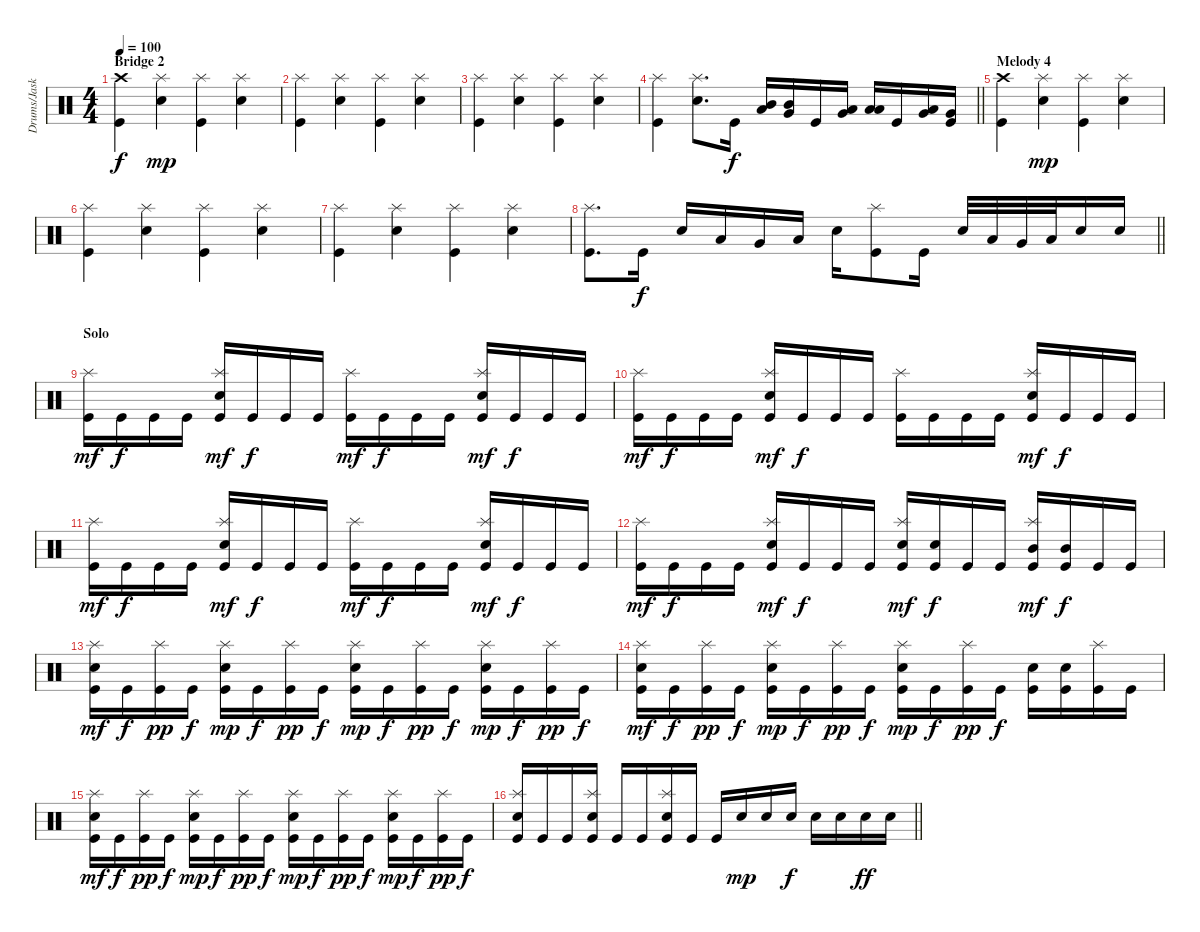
\track ("Drums/Jaska" "Drums/Jask") {instrument percussion}
\staff {score}
\articulation defaults
\ts (4 4)
\section ("" "Bridge 2")
\tempo 100
\clef neutral
\ks c
("Crash high (hit)" "Kick (hit)").4{dy f} ("Splash (hit)" "Electric Snare (hit)").4{dy mp} ("Splash (hit)" "Kick (hit)").4 ("Splash (hit)" "Electric Snare (hit)").4 |
("Splash (hit)" "Kick (hit)").4 ("Splash (hit)" "Electric Snare (hit)").4 ("Splash (hit)" "Kick (hit)").4 ("Splash (hit)" "Electric Snare (hit)").4 |
("Splash (hit)" "Kick (hit)").4 ("Splash (hit)" "Electric Snare (hit)").4 ("Splash (hit)" "Kick (hit)").4 ("Splash (hit)" "Electric Snare (hit)").4 |
\barLineRight lightlight
("Splash (hit)" "Kick (hit)").4 ("Splash (hit)" "Electric Snare (hit)").8{d} "Kick (hit)".16{dy f} ("Low Tom (hit)" "Mid Tom (hit)").16 ("Very Low Tom (hit)" "Mid Tom (hit)").16 "Kick (hit)".16 ("Very Low Tom (hit)" "Low Tom (hit)").16 ("Low Floor Tom (hit)" "Low Tom (hit)").16 "Kick (hit)".16 ("Low Floor Tom (hit)" "Very Low Tom (hit)").16 ("Very Low Tom (hit)" "Kick (hit)").16 |
\section ("" "Melody 4")
("Crash high (hit)" "Kick (hit)").4 ("Splash (hit)" "Electric Snare (hit)").4{dy mp} ("Splash (hit)" "Kick (hit)").4 ("Splash (hit)" "Electric Snare (hit)").4 |
("Splash (hit)" "Kick (hit)").4 ("Splash (hit)" "Electric Snare (hit)").4 ("Splash (hit)" "Kick (hit)").4 ("Splash (hit)" "Electric Snare (hit)").4 |
("Splash (hit)" "Kick (hit)").4 ("Splash (hit)" "Electric Snare (hit)").4 ("Splash (hit)" "Kick (hit)").4 ("Splash (hit)" "Electric Snare (hit)").4 |
\barLineRight lightlight
("Splash (hit)" "Kick (hit)").8{d} "Kick (hit)".16{dy f} "Electric Snare (hit)".16 "Low Tom (hit)".16 "Very Low Tom (hit)".16 "Low Floor Tom (hit)".16 "Electric Snare (hit)".16 ("Splash (hit)" "Kick (hit)").8 "Kick (hit)".16 "Electric Snare (hit)".32 "Low Tom (hit)".32 "Very Low Tom (hit)".32 "Low Floor Tom (hit)".32 "Electric Snare (hit)".16 "Electric Snare (hit)".16 |
\section ("" "Solo")
("Splash (hit)" "Kick (hit)").16{dy mf} "Kick (hit)".16{dy f} "Kick (hit)".16 "Kick (hit)".16 ("Splash (hit)" "Electric Snare (hit)" "Kick (hit)").16{dy mf} "Kick (hit)".16{dy f} "Kick (hit)".16 "Kick (hit)".16 ("Splash (hit)" "Kick (hit)").16{dy mf} "Kick (hit)".16{dy f} "Kick (hit)".16 "Kick (hit)".16 ("Splash (hit)" "Electric Snare (hit)" "Kick (hit)").16{dy mf} "Kick (hit)".16{dy f} "Kick (hit)".16 "Kick (hit)".16 |
("Splash (hit)" "Kick (hit)").16{dy mf} "Kick (hit)".16{dy f} "Kick (hit)".16 "Kick (hit)".16 ("Splash (hit)" "Electric Snare (hit)" "Kick (hit)").16{dy mf} "Kick (hit)".16{dy f} "Kick (hit)".16 "Kick (hit)".16 ("Splash (hit)" "Kick (hit)").16 "Kick (hit)".16 "Kick (hit)".16 "Kick (hit)".16 ("Splash (hit)" "Electric Snare (hit)" "Kick (hit)").16{dy mf} "Kick (hit)".16{dy f} "Kick (hit)".16 "Kick (hit)".16 |
("Splash (hit)" "Kick (hit)").16{dy mf} "Kick (hit)".16{dy f} "Kick (hit)".16 "Kick (hit)".16 ("Splash (hit)" "Electric Snare (hit)" "Kick (hit)").16{dy mf} "Kick (hit)".16{dy f} "Kick (hit)".16 "Kick (hit)".16 ("Splash (hit)" "Kick (hit)").16{dy mf} "Kick (hit)".16{dy f} "Kick (hit)".16 "Kick (hit)".16 ("Splash (hit)" "Electric Snare (hit)" "Kick (hit)").16{dy mf} "Kick (hit)".16{dy f} "Kick (hit)".16 "Kick (hit)".16 |
("Splash (hit)" "Kick (hit)").16{dy mf} "Kick (hit)".16{dy f} "Kick (hit)".16 "Kick (hit)".16 ("Splash (hit)" "Electric Snare (hit)" "Kick (hit)").16{dy mf} "Kick (hit)".16{dy f} "Kick (hit)".16 "Kick (hit)".16 ("Splash (hit)" "Electric Snare (hit)" "Kick (hit)").16{dy mf} ("Electric Snare (hit)" "Kick (hit)").16{dy f} "Kick (hit)".16 "Kick (hit)".16 ("Splash (hit)" "Mid Tom (hit)" "Kick (hit)").16{dy mf} ("Mid Tom (hit)" "Kick (hit)").16{dy f} "Kick (hit)".16 "Kick (hit)".16 |
("Splash (hit)" "Electric Snare (hit)" "Kick (hit)").16{dy mf} "Kick (hit)".16{dy f} ("Splash (hit)" "Kick (hit)").16{dy pp} "Kick (hit)".16{dy f} ("Splash (hit)" "Electric Snare (hit)" "Kick (hit)").16{dy mp} "Kick (hit)".16{dy f} ("Splash (hit)" "Kick (hit)").16{dy pp} "Kick (hit)".16{dy f} ("Splash (hit)" "Electric Snare (hit)" "Kick (hit)").16{dy mp} "Kick (hit)".16{dy f} ("Splash (hit)" "Kick (hit)").16{dy pp} "Kick (hit)".16{dy f} ("Splash (hit)" "Electric Snare (hit)" "Kick (hit)").16{dy mp} "Kick (hit)".16{dy f} ("Splash (hit)" "Kick (hit)").16{dy pp} "Kick (hit)".16{dy f} |
("Splash (hit)" "Electric Snare (hit)" "Kick (hit)").16{dy mf} "Kick (hit)".16{dy f} ("Splash (hit)" "Kick (hit)").16{dy pp} "Kick (hit)".16{dy f} ("Splash (hit)" "Electric Snare (hit)" "Kick (hit)").16{dy mp} "Kick (hit)".16{dy f} ("Splash (hit)" "Kick (hit)").16{dy pp} "Kick (hit)".16{dy f} ("Splash (hit)" "Electric Snare (hit)" "Kick (hit)").16{dy mp} "Kick (hit)".16{dy f} ("Splash (hit)" "Kick (hit)").16{dy pp} "Kick (hit)".16{dy f} ("Electric Snare (hit)" "Kick (hit)").16 ("Electric Snare (hit)" "Kick (hit)").16 ("Splash (hit)" "Kick (hit)").16 "Kick (hit)".16 |
("Splash (hit)" "Electric Snare (hit)" "Kick (hit)").16{dy mf} "Kick (hit)".16{dy f} ("Splash (hit)" "Kick (hit)").16{dy pp} "Kick (hit)".16{dy f} ("Splash (hit)" "Electric Snare (hit)" "Kick (hit)").16{dy mp} "Kick (hit)".16{dy f} ("Splash (hit)" "Kick (hit)").16{dy pp} "Kick (hit)".16{dy f} ("Splash (hit)" "Electric Snare (hit)" "Kick (hit)").16{dy mp} "Kick (hit)".16{dy f} ("Splash (hit)" "Kick (hit)").16{dy pp} "Kick (hit)".16{dy f} ("Splash (hit)" "Electric Snare (hit)" "Kick (hit)").16{dy mp} "Kick (hit)".16{dy f} ("Splash (hit)" "Kick (hit)").16{dy pp} "Kick (hit)".16{dy f} |
\barLineRight lightlight
("Splash (hit)" "Electric Snare (hit)" "Kick (hit)").16 "Kick (hit)".16 "Kick (hit)".16 ("Splash (hit)" "Electric Snare (hit)" "Kick (hit)").16 "Kick (hit)".16 "Kick (hit)".16 ("Splash (hit)" "Electric Snare (hit)" "Kick (hit)").16 "Kick (hit)".16 "Kick (hit)".16 "Electric Snare (hit)".16{dy mp} "Electric Snare (hit)".16 "Electric Snare (hit)".16{dy f} "Electric Snare (hit)".16 "Electric Snare (hit)".16 "Electric Snare (hit)".16{dy ff} "Electric Snare (hit)".16
